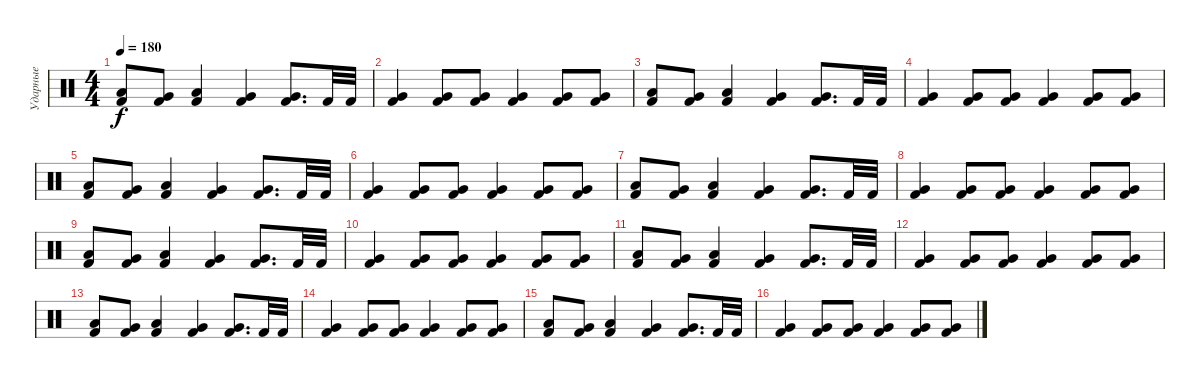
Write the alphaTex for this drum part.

\track ("Ударные" "Ударные") {instrument percussion}
\staff {score}
\articulation defaults
\ts (4 4)
\tempo 180
\clef neutral
\ks c
("Low Floor Tom (hit)" "Kick (hit) 2").8{dy f} ("Very Low Tom (hit)" "Kick (hit) 2").8 ("Low Tom (hit)" "Kick (hit) 2").4 ("Very Low Tom (hit)" "Kick (hit) 2").4 ("Very Low Tom (hit)" "Kick (hit) 2").8{d} "Kick (hit) 2".32 "Kick (hit) 2".32 |
("Very Low Tom (hit)" "Kick (hit) 2").4 ("Very Low Tom (hit)" "Kick (hit) 2").8 ("Very Low Tom (hit)" "Kick (hit) 2").8 ("Very Low Tom (hit)" "Kick (hit) 2").4 ("Kick (hit) 2" "Very Low Tom (hit)").8 ("Kick (hit) 2" "Very Low Tom (hit)").8 |
("Low Floor Tom (hit)" "Kick (hit) 2").8 ("Very Low Tom (hit)" "Kick (hit) 2").8 ("Low Tom (hit)" "Kick (hit) 2").4 ("Very Low Tom (hit)" "Kick (hit) 2").4 ("Very Low Tom (hit)" "Kick (hit) 2").8{d} "Kick (hit) 2".32 "Kick (hit) 2".32 |
("Very Low Tom (hit)" "Kick (hit) 2").4 ("Very Low Tom (hit)" "Kick (hit) 2").8 ("Very Low Tom (hit)" "Kick (hit) 2").8 ("Very Low Tom (hit)" "Kick (hit) 2").4 ("Kick (hit) 2" "Very Low Tom (hit)").8 ("Kick (hit) 2" "Very Low Tom (hit)").8 |
("Low Floor Tom (hit)" "Kick (hit) 2").8 ("Very Low Tom (hit)" "Kick (hit) 2").8 ("Low Tom (hit)" "Kick (hit) 2").4 ("Very Low Tom (hit)" "Kick (hit) 2").4 ("Very Low Tom (hit)" "Kick (hit) 2").8{d} "Kick (hit) 2".32 "Kick (hit) 2".32 |
("Very Low Tom (hit)" "Kick (hit) 2").4 ("Very Low Tom (hit)" "Kick (hit) 2").8 ("Very Low Tom (hit)" "Kick (hit) 2").8 ("Very Low Tom (hit)" "Kick (hit) 2").4 ("Kick (hit) 2" "Very Low Tom (hit)").8 ("Kick (hit) 2" "Very Low Tom (hit)").8 |
("Low Floor Tom (hit)" "Kick (hit) 2").8 ("Very Low Tom (hit)" "Kick (hit) 2").8 ("Low Tom (hit)" "Kick (hit) 2").4 ("Very Low Tom (hit)" "Kick (hit) 2").4 ("Very Low Tom (hit)" "Kick (hit) 2").8{d} "Kick (hit) 2".32 "Kick (hit) 2".32 |
("Very Low Tom (hit)" "Kick (hit) 2").4 ("Very Low Tom (hit)" "Kick (hit) 2").8 ("Very Low Tom (hit)" "Kick (hit) 2").8 ("Very Low Tom (hit)" "Kick (hit) 2").4 ("Kick (hit) 2" "Very Low Tom (hit)").8 ("Kick (hit) 2" "Very Low Tom (hit)").8 |
("Low Floor Tom (hit)" "Kick (hit) 2").8 ("Very Low Tom (hit)" "Kick (hit) 2").8 ("Low Tom (hit)" "Kick (hit) 2").4 ("Very Low Tom (hit)" "Kick (hit) 2").4 ("Very Low Tom (hit)" "Kick (hit) 2").8{d} "Kick (hit) 2".32 "Kick (hit) 2".32 |
("Very Low Tom (hit)" "Kick (hit) 2").4 ("Very Low Tom (hit)" "Kick (hit) 2").8 ("Very Low Tom (hit)" "Kick (hit) 2").8 ("Very Low Tom (hit)" "Kick (hit) 2").4 ("Kick (hit) 2" "Very Low Tom (hit)").8 ("Kick (hit) 2" "Very Low Tom (hit)").8 |
("Low Floor Tom (hit)" "Kick (hit) 2").8 ("Very Low Tom (hit)" "Kick (hit) 2").8 ("Low Tom (hit)" "Kick (hit) 2").4 ("Very Low Tom (hit)" "Kick (hit) 2").4 ("Very Low Tom (hit)" "Kick (hit) 2").8{d} "Kick (hit) 2".32 "Kick (hit) 2".32 |
("Very Low Tom (hit)" "Kick (hit) 2").4 ("Very Low Tom (hit)" "Kick (hit) 2").8 ("Very Low Tom (hit)" "Kick (hit) 2").8 ("Very Low Tom (hit)" "Kick (hit) 2").4 ("Kick (hit) 2" "Very Low Tom (hit)").8 ("Kick (hit) 2" "Very Low Tom (hit)").8 |
("Low Floor Tom (hit)" "Kick (hit) 2").8 ("Very Low Tom (hit)" "Kick (hit) 2").8 ("Low Tom (hit)" "Kick (hit) 2").4 ("Very Low Tom (hit)" "Kick (hit) 2").4 ("Very Low Tom (hit)" "Kick (hit) 2").8{d} "Kick (hit) 2".32 "Kick (hit) 2".32 |
("Very Low Tom (hit)" "Kick (hit) 2").4 ("Very Low Tom (hit)" "Kick (hit) 2").8 ("Very Low Tom (hit)" "Kick (hit) 2").8 ("Very Low Tom (hit)" "Kick (hit) 2").4 ("Kick (hit) 2" "Very Low Tom (hit)").8 ("Kick (hit) 2" "Very Low Tom (hit)").8 |
("Low Floor Tom (hit)" "Kick (hit) 2").8 ("Very Low Tom (hit)" "Kick (hit) 2").8 ("Low Tom (hit)" "Kick (hit) 2").4 ("Very Low Tom (hit)" "Kick (hit) 2").4 ("Very Low Tom (hit)" "Kick (hit) 2").8{d} "Kick (hit) 2".32 "Kick (hit) 2".32 |
("Very Low Tom (hit)" "Kick (hit) 2").4 ("Very Low Tom (hit)" "Kick (hit) 2").8 ("Very Low Tom (hit)" "Kick (hit) 2").8 ("Very Low Tom (hit)" "Kick (hit) 2").4 ("Kick (hit) 2" "Very Low Tom (hit)").8 ("Kick (hit) 2" "Very Low Tom (hit)").8
